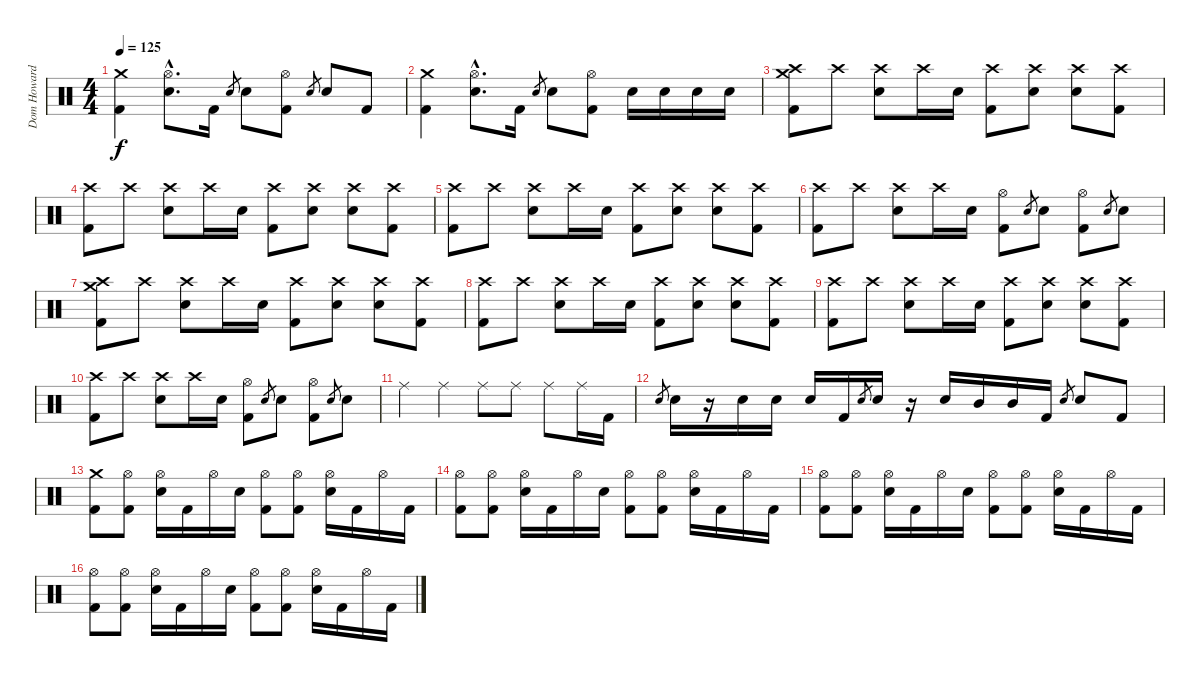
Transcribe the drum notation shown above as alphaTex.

\track ("Dom Howard" "Dom Howard") {instrument percussion}
\staff {score}
\articulation defaults
\ts (4 4)
\tempo 125
\clef neutral
\ks c
("Crash medium (hit)" "Kick (hit) 2").4{dy f} ("Hi-Hat (open)"{hac} "Electric Snare (hit)"{hac}).8{d} "Kick (hit) 2".16 "Electric Snare (hit)".8{gr} "Electric Snare (hit)".8 ("Hi-Hat (open)" "Kick (hit) 2").8 "Electric Snare (hit)".8{gr} "Electric Snare (hit)".8 "Kick (hit) 2".8 |
("Crash medium (hit)" "Kick (hit) 2").4 ("Hi-Hat (open)"{hac} "Electric Snare (hit)"{hac}).8{d} "Kick (hit) 2".16 "Electric Snare (hit)".8{gr} "Electric Snare (hit)".8 ("Hi-Hat (open)" "Kick (hit) 2").8 "Electric Snare (hit)".16 "Electric Snare (hit)".16 "Electric Snare (hit)".16 "Electric Snare (hit)".16 |
("Crash medium (hit)" "Crash high (hit)" "Kick (hit) 2").8 "Crash high (hit)".8 ("Crash high (hit)" "Electric Snare (hit)").8 "Crash high (hit)".16 "Electric Snare (hit)".16 ("Crash high (hit)" "Kick (hit) 2").8 ("Crash high (hit)" "Electric Snare (hit)").8 ("Crash high (hit)" "Electric Snare (hit)").8 ("Crash high (hit)" "Kick (hit) 2").8 |
("Crash high (hit)" "Kick (hit) 2").8 "Crash high (hit)".8 ("Crash high (hit)" "Electric Snare (hit)").8 "Crash high (hit)".16 "Electric Snare (hit)".16 ("Crash high (hit)" "Kick (hit) 2").8 ("Crash high (hit)" "Electric Snare (hit)").8 ("Crash high (hit)" "Electric Snare (hit)").8 ("Crash high (hit)" "Kick (hit) 2").8 |
("Crash high (hit)" "Kick (hit) 2").8 "Crash high (hit)".8 ("Crash high (hit)" "Electric Snare (hit)").8 "Crash high (hit)".16 "Electric Snare (hit)".16 ("Crash high (hit)" "Kick (hit) 2").8 ("Crash high (hit)" "Electric Snare (hit)").8 ("Crash high (hit)" "Electric Snare (hit)").8 ("Crash high (hit)" "Kick (hit) 2").8 |
("Crash high (hit)" "Kick (hit) 2").8 "Crash high (hit)".8 ("Crash high (hit)" "Electric Snare (hit)").8 "Crash high (hit)".16 "Electric Snare (hit)".16 ("Hi-Hat (open)" "Kick (hit) 2").8 "Electric Snare (hit)".8{gr} "Electric Snare (hit)".8 ("Hi-Hat (open)" "Kick (hit) 2").8 "Electric Snare (hit)".8{gr} "Electric Snare (hit)".8 |
("Crash medium (hit)" "Crash high (hit)" "Kick (hit) 2").8 "Crash high (hit)".8 ("Crash high (hit)" "Electric Snare (hit)").8 "Crash high (hit)".16 "Electric Snare (hit)".16 ("Crash high (hit)" "Kick (hit) 2").8 ("Crash high (hit)" "Electric Snare (hit)").8 ("Crash high (hit)" "Electric Snare (hit)").8 ("Crash high (hit)" "Kick (hit) 2").8 |
("Crash high (hit)" "Kick (hit) 2").8 "Crash high (hit)".8 ("Crash high (hit)" "Electric Snare (hit)").8 "Crash high (hit)".16 "Electric Snare (hit)".16 ("Crash high (hit)" "Kick (hit) 2").8 ("Crash high (hit)" "Electric Snare (hit)").8 ("Crash high (hit)" "Electric Snare (hit)").8 ("Crash high (hit)" "Kick (hit) 2").8 |
("Crash high (hit)" "Kick (hit) 2").8 "Crash high (hit)".8 ("Crash high (hit)" "Electric Snare (hit)").8 "Crash high (hit)".16 "Electric Snare (hit)".16 ("Crash high (hit)" "Kick (hit) 2").8 ("Crash high (hit)" "Electric Snare (hit)").8 ("Crash high (hit)" "Electric Snare (hit)").8 ("Crash high (hit)" "Kick (hit) 2").8 |
("Crash high (hit)" "Kick (hit) 2").8 "Crash high (hit)".8 ("Crash high (hit)" "Electric Snare (hit)").8 "Crash high (hit)".16 "Electric Snare (hit)".16 ("Hi-Hat (open)" "Kick (hit) 2").8 "Electric Snare (hit)".8{gr} "Electric Snare (hit)".8 ("Hi-Hat (open)" "Kick (hit) 2").8 "Electric Snare (hit)".8{gr} "Electric Snare (hit)".8 |
"Ride (middle)".4 "Ride (middle)".4 "Ride (middle)".8 "Ride (middle)".8 "Ride (middle)".8 "Ride (middle)".16 "Kick (hit) 2".16 |
"Electric Snare (hit)".8{gr} "Electric Snare (hit)".16 r.16 "Electric Snare (hit)".16 "Electric Snare (hit)".16 "Electric Snare (hit)".16 "Kick (hit) 2".16 "Electric Snare (hit)".8{gr} "Electric Snare (hit)".16 r.16 "Electric Snare (hit)".16 "Mid Tom (hit)".16 "Mid Tom (hit)".16 "Kick (hit) 2".16 "Electric Snare (hit)".8{gr} "Electric Snare (hit)".8 "Kick (hit) 2".8 |
("Crash medium (hit)" "Kick (hit) 2").8 ("Hi-Hat (open)" "Kick (hit) 2").8 ("Hi-Hat (open)" "Electric Snare (hit)").16 "Kick (hit) 2".16 "Hi-Hat (open)".16 "Electric Snare (hit)".16 ("Hi-Hat (open)" "Kick (hit) 2").8 ("Hi-Hat (open)" "Kick (hit) 2").8 ("Hi-Hat (open)" "Electric Snare (hit)").16 "Kick (hit) 2".16 "Hi-Hat (open)".16 "Kick (hit) 2".16 |
("Hi-Hat (open)" "Kick (hit) 2").8 ("Hi-Hat (open)" "Kick (hit) 2").8 ("Hi-Hat (open)" "Electric Snare (hit)").16 "Kick (hit) 2".16 "Hi-Hat (open)".16 "Electric Snare (hit)".16 ("Hi-Hat (open)" "Kick (hit) 2").8 ("Hi-Hat (open)" "Kick (hit) 2").8 ("Hi-Hat (open)" "Electric Snare (hit)").16 "Kick (hit) 2".16 "Hi-Hat (open)".16 "Kick (hit) 2".16 |
("Hi-Hat (open)" "Kick (hit) 2").8 ("Hi-Hat (open)" "Kick (hit) 2").8 ("Hi-Hat (open)" "Electric Snare (hit)").16 "Kick (hit) 2".16 "Hi-Hat (open)".16 "Electric Snare (hit)".16 ("Hi-Hat (open)" "Kick (hit) 2").8 ("Hi-Hat (open)" "Kick (hit) 2").8 ("Hi-Hat (open)" "Electric Snare (hit)").16 "Kick (hit) 2".16 "Hi-Hat (open)".16 "Kick (hit) 2".16 |
("Hi-Hat (open)" "Kick (hit) 2").8 ("Hi-Hat (open)" "Kick (hit) 2").8 ("Hi-Hat (open)" "Electric Snare (hit)").16 "Kick (hit) 2".16 "Hi-Hat (open)".16 "Electric Snare (hit)".16 ("Hi-Hat (open)" "Kick (hit) 2").8 ("Hi-Hat (open)" "Kick (hit) 2").8 ("Hi-Hat (open)" "Electric Snare (hit)").16 "Kick (hit) 2".16 "Hi-Hat (open)".16 "Kick (hit) 2".16
